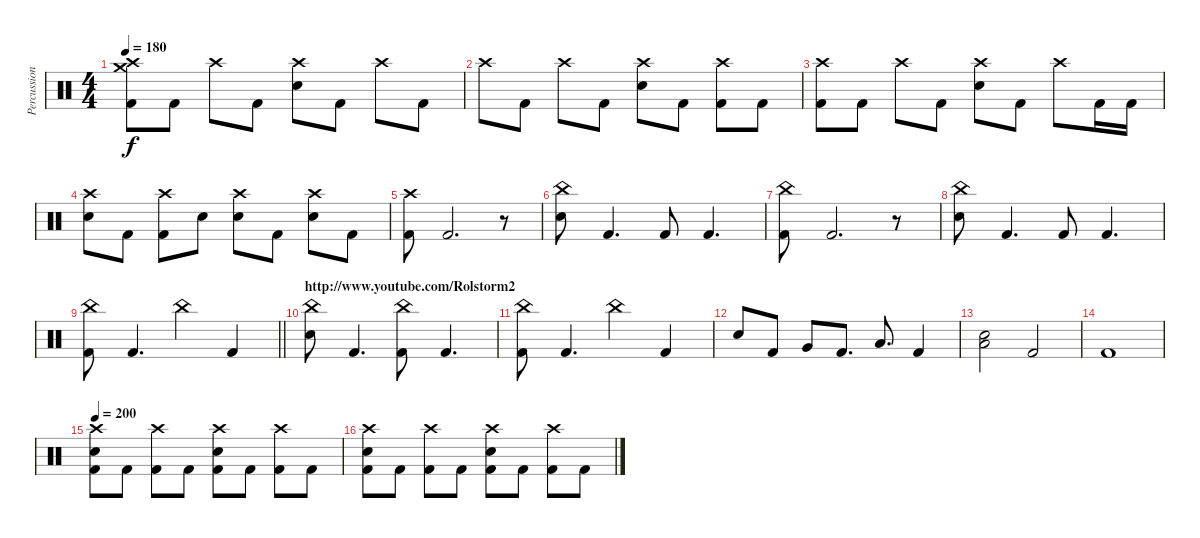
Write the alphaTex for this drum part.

\track ("Percussion" "Percussion") {instrument percussion}
\staff {score}
\articulation defaults
\ts (4 4)
\tempo 180
\clef neutral
\ks c
("Crash high (hit)" "Crash medium (hit)" "Kick (hit) 2").8{dy f} "Kick (hit) 2".8 "Crash high (hit)".8 "Kick (hit) 2".8 ("Crash high (hit)" "Electric Snare (hit)").8 "Kick (hit) 2".8 "Crash high (hit)".8 "Kick (hit) 2".8 |
"Crash high (hit)".8 "Kick (hit) 2".8 "Crash high (hit)".8 "Kick (hit) 2".8 ("Crash high (hit)" "Electric Snare (hit)").8 "Kick (hit) 2".8 ("Crash high (hit)" "Kick (hit) 2").8 "Kick (hit) 2".8 |
("Crash high (hit)" "Kick (hit) 2").8 "Kick (hit) 2".8 "Crash high (hit)".8 "Kick (hit) 2".8 ("Crash high (hit)" "Electric Snare (hit)").8 "Kick (hit) 2".8 "Crash high (hit)".8 "Kick (hit) 2".16 "Kick (hit) 2".16 |
("Crash high (hit)" "Electric Snare (hit)").8 "Kick (hit) 2".8 ("Crash high (hit)" "Kick (hit) 2").8 "Electric Snare (hit)".8 ("Crash high (hit)" "Electric Snare (hit)").8 "Kick (hit) 2".8 ("Crash high (hit)" "Electric Snare (hit)").8 "Kick (hit) 2".8 |
("Crash high (hit)" "Kick (hit) 2").8 "Kick (hit) 2".2{d} r.8 |
("China (hit)" "Electric Snare (hit)").8 "Kick (hit) 2".4{d} "Kick (hit) 2".8 "Kick (hit) 2".4{d} |
("China (hit)" "Kick (hit) 2").8 "Kick (hit) 2".2{d} r.8 |
("China (hit)" "Electric Snare (hit)").8 "Kick (hit) 2".4{d} "Kick (hit) 2".8 "Kick (hit) 2".4{d} |
\barLineRight lightlight
("China (hit)" "Kick (hit) 2").8 "Kick (hit) 2".4{d} "China (hit)".4 "Kick (hit) 2".4 |
\section ("" "http://www.youtube.com/Rolstorm2")
("China (hit)" "Electric Snare (hit)").8 "Kick (hit) 2".4{d} ("China (hit)" "Kick (hit) 2").8 "Kick (hit) 2".4{d} |
("China (hit)" "Kick (hit) 2").8 "Kick (hit) 2".4{d} "China (hit)".4 "Kick (hit) 2".4 |
"Electric Snare (hit)".8 "Kick (hit) 2".8 "Very Low Tom (hit)".8 "Kick (hit) 2".8{d} "Low Floor Tom (hit)".8{d} "Kick (hit) 2".4 |
("Low Floor Tom (hit)" "Electric Snare (hit)").2 "Kick (hit) 2".2 |
"Kick (hit) 2".1 |
\tempo 200
("Crash high (hit)" "Electric Snare (hit)" "Kick (hit) 2").8 "Kick (hit) 2".8 ("Crash high (hit)" "Kick (hit) 2").8 "Kick (hit) 2".8 ("Crash high (hit)" "Electric Snare (hit)" "Kick (hit) 2").8 "Kick (hit) 2".8 ("Crash high (hit)" "Kick (hit) 2").8 "Kick (hit) 2".8 |
("Crash high (hit)" "Electric Snare (hit)" "Kick (hit) 2").8 "Kick (hit) 2".8 ("Crash high (hit)" "Kick (hit) 2").8 "Kick (hit) 2".8 ("Crash high (hit)" "Electric Snare (hit)" "Kick (hit) 2").8 "Kick (hit) 2".8 ("Crash high (hit)" "Kick (hit) 2").8 "Kick (hit) 2".8
